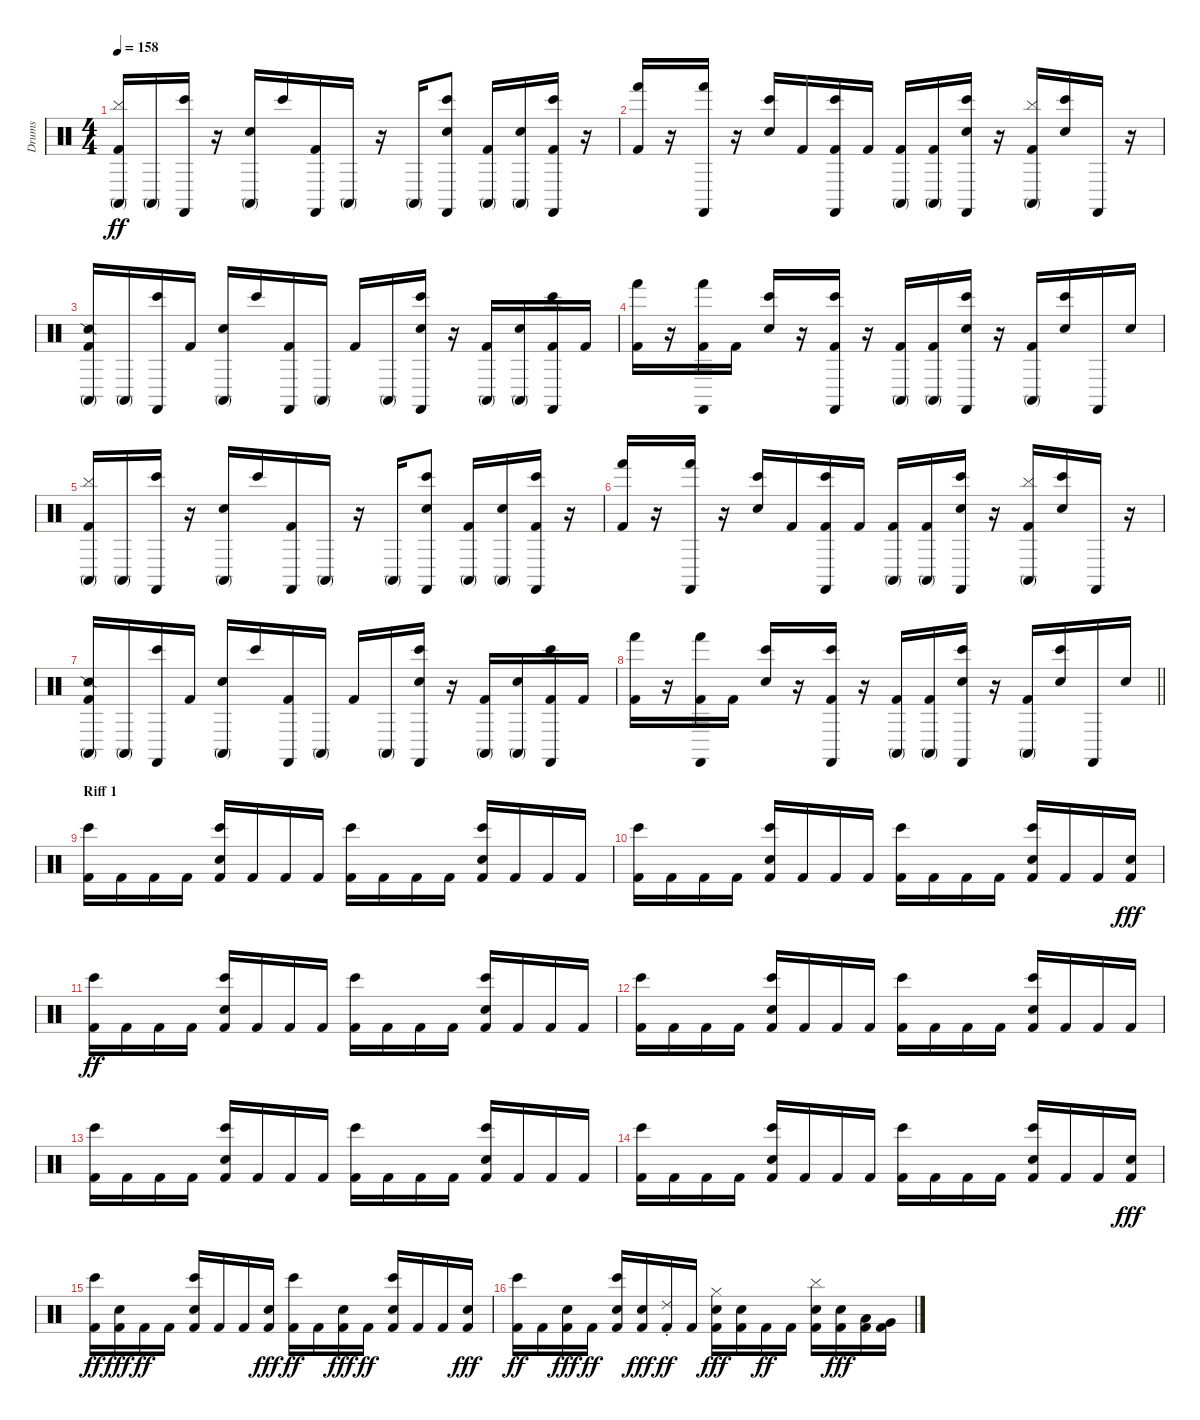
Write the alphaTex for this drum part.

\track ("Drums" "Drums") {instrument percussion}
\staff {score}
\articulation defaults
\ts (4 4)
\tempo 158
\clef neutral
\ks c
("Cymbal (hit)" "Kick (hit) 2" "Conga high (mute)").16{dy ff} "Conga high (mute)".16 ("Bongo High (hit)" "Castanets (hit)").16 r.16 ("Snare (hit) 2" "Conga high (mute)").16 "Bongo High (hit)".16 ("Kick (hit) 2" "Castanets (hit)").16 "Conga high (mute)".16 r.16 "Conga high (mute)".16 ("Snare (hit) 2" "Bongo High (hit)" "Castanets (hit)").8 ("Kick (hit) 2" "Conga high (mute)").16 ("Snare (hit) 2" "Conga high (mute)").16 ("Kick (hit) 2" "Bongo High (hit)" "Castanets (hit)").16 r.16 |
("Kick (hit) 2" "Hand (hit)").16 r.16 ("Hand (hit)" "Castanets (hit)").16 r.16 ("Snare (hit) 2" "Bongo High (hit)").16 "Kick (hit) 2".16 ("Kick (hit) 2" "Bongo High (hit)" "Castanets (hit)").16 "Kick (hit) 2".16 ("Kick (hit) 2" "Conga high (mute)").16 ("Kick (hit) 2" "Conga high (mute)").16 ("Snare (hit) 2" "Bongo High (hit)" "Castanets (hit)").16 r.16 ("Cymbal (hit)" "Kick (hit) 2" "Conga high (mute)").16 ("Snare (hit) 2" "Bongo High (hit)").16 "Castanets (hit)".16 r.16 |
("Snare (side stick) 2" "Kick (hit) 2" "Conga high (mute)").16 "Conga high (mute)".16 ("Bongo High (hit)" "Castanets (hit)").16 "Kick (hit) 2".16 ("Snare (hit) 2" "Conga high (mute)").16 "Bongo High (hit)".16 ("Kick (hit) 2" "Castanets (hit)").16 "Conga high (mute)".16 "Kick (hit) 2".16 "Conga high (mute)".16 ("Snare (hit) 2" "Bongo High (hit)" "Castanets (hit)").16 r.16 ("Kick (hit) 2" "Conga high (mute)").16 ("Snare (hit) 2" "Conga high (mute)").16 ("Kick (hit) 2" "Bongo High (hit)" "Castanets (hit)").16 "Kick (hit) 2".16 |
("Kick (hit) 2" "Hand (hit)").16 r.16 ("Kick (hit) 2" "Hand (hit)" "Castanets (hit)").16 "Kick (hit) 2".16 ("Snare (hit) 2" "Bongo High (hit)").16 r.16 ("Kick (hit) 2" "Bongo High (hit)" "Castanets (hit)").16 r.16 ("Kick (hit) 2" "Conga high (mute)").16 ("Kick (hit) 2" "Conga high (mute)").16 ("Snare (hit) 2" "Bongo High (hit)" "Castanets (hit)").16 r.16 ("Kick (hit) 2" "Conga high (mute)").16 ("Snare (hit) 2" "Bongo High (hit)").16 "Castanets (hit)".16 "Snare (hit) 2".16 |
("Cymbal (hit)" "Kick (hit) 2" "Conga high (mute)").16 "Conga high (mute)".16 ("Bongo High (hit)" "Castanets (hit)").16 r.16 ("Snare (hit) 2" "Conga high (mute)").16 "Bongo High (hit)".16 ("Kick (hit) 2" "Castanets (hit)").16 "Conga high (mute)".16 r.16 "Conga high (mute)".16 ("Snare (hit) 2" "Bongo High (hit)" "Castanets (hit)").8 ("Kick (hit) 2" "Conga high (mute)").16 ("Snare (hit) 2" "Conga high (mute)").16 ("Kick (hit) 2" "Bongo High (hit)" "Castanets (hit)").16 r.16 |
("Kick (hit) 2" "Hand (hit)").16 r.16 ("Hand (hit)" "Castanets (hit)").16 r.16 ("Snare (hit) 2" "Bongo High (hit)").16 "Kick (hit) 2".16 ("Kick (hit) 2" "Bongo High (hit)" "Castanets (hit)").16 "Kick (hit) 2".16 ("Kick (hit) 2" "Conga high (mute)").16 ("Kick (hit) 2" "Conga high (mute)").16 ("Snare (hit) 2" "Bongo High (hit)" "Castanets (hit)").16 r.16 ("Cymbal (hit)" "Kick (hit) 2" "Conga high (mute)").16 ("Snare (hit) 2" "Bongo High (hit)").16 "Castanets (hit)".16 r.16 |
("Snare (side stick) 2" "Kick (hit) 2" "Conga high (mute)").16 "Conga high (mute)".16 ("Bongo High (hit)" "Castanets (hit)").16 "Kick (hit) 2".16 ("Snare (hit) 2" "Conga high (mute)").16 "Bongo High (hit)".16 ("Kick (hit) 2" "Castanets (hit)").16 "Conga high (mute)".16 "Kick (hit) 2".16 "Conga high (mute)".16 ("Snare (hit) 2" "Bongo High (hit)" "Castanets (hit)").16 r.16 ("Kick (hit) 2" "Conga high (mute)").16 ("Snare (hit) 2" "Conga high (mute)").16 ("Kick (hit) 2" "Bongo High (hit)" "Castanets (hit)").16 "Kick (hit) 2".16 |
\barLineRight lightlight
("Kick (hit) 2" "Hand (hit)").16 r.16 ("Kick (hit) 2" "Hand (hit)" "Castanets (hit)").16 "Kick (hit) 2".16 ("Snare (hit) 2" "Bongo High (hit)").16 r.16 ("Kick (hit) 2" "Bongo High (hit)" "Castanets (hit)").16 r.16 ("Kick (hit) 2" "Conga high (mute)").16 ("Kick (hit) 2" "Conga high (mute)").16 ("Snare (hit) 2" "Bongo High (hit)" "Castanets (hit)").16 r.16 ("Kick (hit) 2" "Conga high (mute)").16 ("Snare (hit) 2" "Bongo High (hit)").16 "Castanets (hit)".16 "Snare (hit) 2".16 |
\section ("" "Riff 1")
("Bongo High (hit)" "Kick (hit) 2").16 "Kick (hit) 2".16 "Kick (hit) 2".16 "Kick (hit) 2".16 ("Bongo High (hit)" "Kick (hit) 2" "Snare (hit) 2").16 "Kick (hit) 2".16 "Kick (hit) 2".16 "Kick (hit) 2".16 ("Bongo High (hit)" "Kick (hit) 2").16 "Kick (hit) 2".16 "Kick (hit) 2".16 "Kick (hit) 2".16 ("Bongo High (hit)" "Kick (hit) 2" "Snare (hit) 2").16 "Kick (hit) 2".16 "Kick (hit) 2".16 "Kick (hit) 2".16 |
("Bongo High (hit)" "Kick (hit) 2").16 "Kick (hit) 2".16 "Kick (hit) 2".16 "Kick (hit) 2".16 ("Bongo High (hit)" "Kick (hit) 2" "Snare (hit) 2").16 "Kick (hit) 2".16 "Kick (hit) 2".16 "Kick (hit) 2".16 ("Bongo High (hit)" "Kick (hit) 2").16 "Kick (hit) 2".16 "Kick (hit) 2".16 "Kick (hit) 2".16 ("Bongo High (hit)" "Kick (hit) 2" "Snare (hit) 2").16 "Kick (hit) 2".16 "Kick (hit) 2".16 ("Kick (hit) 2" "Snare (hit) 2").16{dy fff} |
("Bongo High (hit)" "Kick (hit) 2").16{dy ff} "Kick (hit) 2".16 "Kick (hit) 2".16 "Kick (hit) 2".16 ("Bongo High (hit)" "Kick (hit) 2" "Snare (hit) 2").16 "Kick (hit) 2".16 "Kick (hit) 2".16 "Kick (hit) 2".16 ("Bongo High (hit)" "Kick (hit) 2").16 "Kick (hit) 2".16 "Kick (hit) 2".16 "Kick (hit) 2".16 ("Bongo High (hit)" "Kick (hit) 2" "Snare (hit) 2").16 "Kick (hit) 2".16 "Kick (hit) 2".16 "Kick (hit) 2".16 |
("Bongo High (hit)" "Kick (hit) 2").16 "Kick (hit) 2".16 "Kick (hit) 2".16 "Kick (hit) 2".16 ("Bongo High (hit)" "Kick (hit) 2" "Snare (hit) 2").16 "Kick (hit) 2".16 "Kick (hit) 2".16 "Kick (hit) 2".16 ("Bongo High (hit)" "Kick (hit) 2").16 "Kick (hit) 2".16 "Kick (hit) 2".16 "Kick (hit) 2".16 ("Bongo High (hit)" "Kick (hit) 2" "Snare (hit) 2").16 "Kick (hit) 2".16 "Kick (hit) 2".16 "Kick (hit) 2".16 |
("Bongo High (hit)" "Kick (hit) 2").16 "Kick (hit) 2".16 "Kick (hit) 2".16 "Kick (hit) 2".16 ("Bongo High (hit)" "Kick (hit) 2" "Snare (hit) 2").16 "Kick (hit) 2".16 "Kick (hit) 2".16 "Kick (hit) 2".16 ("Bongo High (hit)" "Kick (hit) 2").16 "Kick (hit) 2".16 "Kick (hit) 2".16 "Kick (hit) 2".16 ("Bongo High (hit)" "Kick (hit) 2" "Snare (hit) 2").16 "Kick (hit) 2".16 "Kick (hit) 2".16 "Kick (hit) 2".16 |
("Bongo High (hit)" "Kick (hit) 2").16 "Kick (hit) 2".16 "Kick (hit) 2".16 "Kick (hit) 2".16 ("Bongo High (hit)" "Kick (hit) 2" "Snare (hit) 2").16 "Kick (hit) 2".16 "Kick (hit) 2".16 "Kick (hit) 2".16 ("Bongo High (hit)" "Kick (hit) 2").16 "Kick (hit) 2".16 "Kick (hit) 2".16 "Kick (hit) 2".16 ("Bongo High (hit)" "Kick (hit) 2" "Snare (hit) 2").16 "Kick (hit) 2".16 "Kick (hit) 2".16 ("Kick (hit) 2" "Snare (hit) 2").16{dy fff} |
("Bongo High (hit)" "Kick (hit) 2").16{dy ff} ("Kick (hit) 2" "Snare (hit) 2").16{dy fff} "Kick (hit) 2".16{dy ff} "Kick (hit) 2".16 ("Bongo High (hit)" "Kick (hit) 2" "Snare (hit) 2").16 "Kick (hit) 2".16 "Kick (hit) 2".16 ("Kick (hit) 2" "Snare (hit) 2").16{dy fff} ("Bongo High (hit)" "Kick (hit) 2").16{dy ff} "Kick (hit) 2".16 ("Kick (hit) 2" "Snare (hit) 2").16{dy fff} "Kick (hit) 2".16{dy ff} ("Bongo High (hit)" "Kick (hit) 2" "Snare (hit) 2").16 "Kick (hit) 2".16 "Kick (hit) 2".16 ("Kick (hit) 2" "Snare (hit) 2").16{dy fff} |
("Bongo High (hit)" "Kick (hit) 2").16{dy ff} "Kick (hit) 2".16 ("Kick (hit) 2" "Snare (hit) 2").16{dy fff} "Kick (hit) 2".16{dy ff} ("Bongo High (hit)" "Kick (hit) 2" "Snare (hit) 2").16 ("Kick (hit) 2" "Snare (hit) 2").16{dy fff} ("Ride (choke) 2" "Kick (hit) 2").16{dy ff} "Kick (hit) 2".16 ("Hi-Hat (closed)" "Kick (hit) 2" "Snare (hit) 2").16{dy fff} ("Kick (hit) 2" "Snare (hit) 2").16 "Kick (hit) 2".16{dy ff} "Kick (hit) 2".16 ("Cymbal (hit)" "Kick (hit) 2" "Snare (hit) 2").16 ("Kick (hit) 2" "Snare (hit) 2").16{dy fff} ("Kick (hit) 2" "Low Tom (hit)").16 ("Kick (hit) 2" "Very Low Tom (hit)").16
